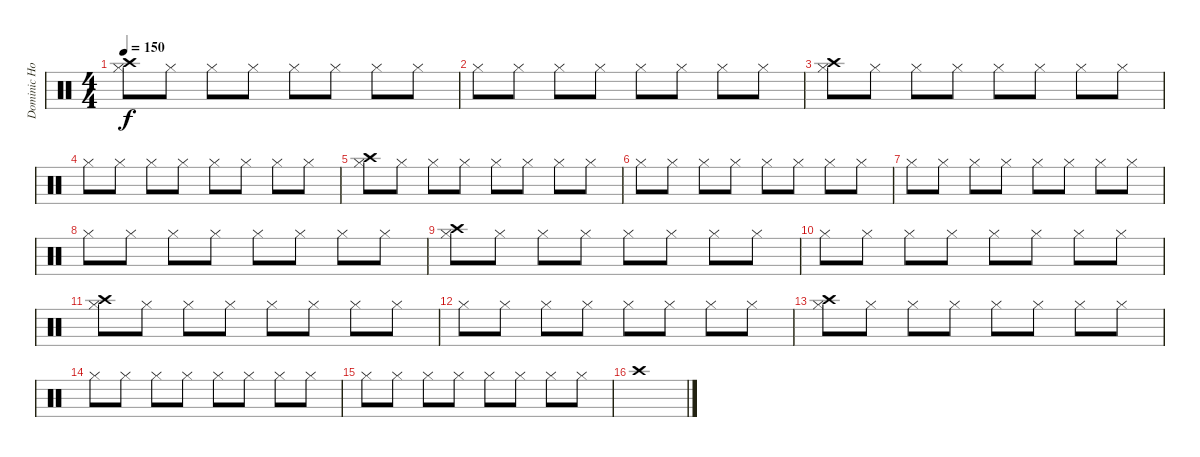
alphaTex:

\track ("Dominic Howard" "Dominic Ho") {instrument percussion}
\staff {score}
\articulation defaults
\ts (4 4)
\tempo 150
\clef neutral
\ks c
("Hi-Hat (closed)" "Crash high (hit)").8{dy f} "Hi-Hat (closed)".8 "Hi-Hat (closed)".8 "Hi-Hat (closed)".8 "Hi-Hat (closed)".8 "Hi-Hat (closed)".8 "Hi-Hat (closed)".8 "Hi-Hat (closed)".8 |
"Hi-Hat (closed)".8 "Hi-Hat (closed)".8 "Hi-Hat (closed)".8 "Hi-Hat (closed)".8 "Hi-Hat (closed)".8 "Hi-Hat (closed)".8 "Hi-Hat (closed)".8 "Hi-Hat (closed)".8 |
("Hi-Hat (closed)" "Crash high (hit)").8 "Hi-Hat (closed)".8 "Hi-Hat (closed)".8 "Hi-Hat (closed)".8 "Hi-Hat (closed)".8 "Hi-Hat (closed)".8 "Hi-Hat (closed)".8 "Hi-Hat (closed)".8 |
"Hi-Hat (closed)".8 "Hi-Hat (closed)".8 "Hi-Hat (closed)".8 "Hi-Hat (closed)".8 "Hi-Hat (closed)".8 "Hi-Hat (closed)".8 "Hi-Hat (closed)".8 "Hi-Hat (closed)".8 |
("Hi-Hat (closed)" "Crash high (hit)").8 "Hi-Hat (closed)".8 "Hi-Hat (closed)".8 "Hi-Hat (closed)".8 "Hi-Hat (closed)".8 "Hi-Hat (closed)".8 "Hi-Hat (closed)".8 "Hi-Hat (closed)".8 |
"Hi-Hat (closed)".8 "Hi-Hat (closed)".8 "Hi-Hat (closed)".8 "Hi-Hat (closed)".8 "Hi-Hat (closed)".8 "Hi-Hat (closed)".8 "Hi-Hat (closed)".8 "Hi-Hat (closed)".8 |
"Hi-Hat (closed)".8 "Hi-Hat (closed)".8 "Hi-Hat (closed)".8 "Hi-Hat (closed)".8 "Hi-Hat (closed)".8 "Hi-Hat (closed)".8 "Hi-Hat (closed)".8 "Hi-Hat (closed)".8 |
"Hi-Hat (closed)".8 "Hi-Hat (closed)".8 "Hi-Hat (closed)".8 "Hi-Hat (closed)".8 "Hi-Hat (closed)".8 "Hi-Hat (closed)".8 "Hi-Hat (closed)".8 "Hi-Hat (closed)".8 |
("Hi-Hat (closed)" "Crash high (hit)").8 "Hi-Hat (closed)".8 "Hi-Hat (closed)".8 "Hi-Hat (closed)".8 "Hi-Hat (closed)".8 "Hi-Hat (closed)".8 "Hi-Hat (closed)".8 "Hi-Hat (closed)".8 |
"Hi-Hat (closed)".8 "Hi-Hat (closed)".8 "Hi-Hat (closed)".8 "Hi-Hat (closed)".8 "Hi-Hat (closed)".8 "Hi-Hat (closed)".8 "Hi-Hat (closed)".8 "Hi-Hat (closed)".8 |
("Hi-Hat (closed)" "Crash high (hit)").8 "Hi-Hat (closed)".8 "Hi-Hat (closed)".8 "Hi-Hat (closed)".8 "Hi-Hat (closed)".8 "Hi-Hat (closed)".8 "Hi-Hat (closed)".8 "Hi-Hat (closed)".8 |
"Hi-Hat (closed)".8 "Hi-Hat (closed)".8 "Hi-Hat (closed)".8 "Hi-Hat (closed)".8 "Hi-Hat (closed)".8 "Hi-Hat (closed)".8 "Hi-Hat (closed)".8 "Hi-Hat (closed)".8 |
("Hi-Hat (closed)" "Crash high (hit)").8 "Hi-Hat (closed)".8 "Hi-Hat (closed)".8 "Hi-Hat (closed)".8 "Hi-Hat (closed)".8 "Hi-Hat (closed)".8 "Hi-Hat (closed)".8 "Hi-Hat (closed)".8 |
"Hi-Hat (closed)".8 "Hi-Hat (closed)".8 "Hi-Hat (closed)".8 "Hi-Hat (closed)".8 "Hi-Hat (closed)".8 "Hi-Hat (closed)".8 "Hi-Hat (closed)".8 "Hi-Hat (closed)".8 |
"Hi-Hat (closed)".8 "Hi-Hat (closed)".8 "Hi-Hat (closed)".8 "Hi-Hat (closed)".8 "Hi-Hat (closed)".8 "Hi-Hat (closed)".8 "Hi-Hat (closed)".8 "Hi-Hat (closed)".8 |
"Crash high (hit)".1
